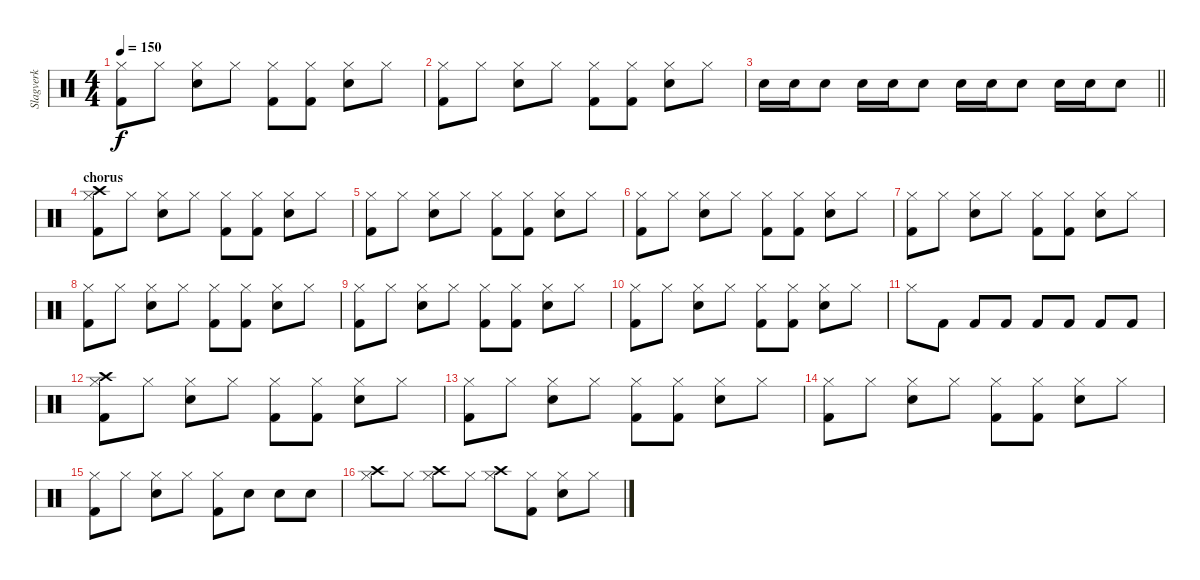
\track ("Slagverk" "Slagverk") {instrument percussion}
\staff {score}
\articulation defaults
\ts (4 4)
\tempo 150
\clef neutral
\ks c
("Hi-Hat (closed)" "Kick (hit) 2").8{dy f} "Hi-Hat (closed)".8 ("Hi-Hat (closed)" "Snare (hit) 2").8 "Hi-Hat (closed)".8 ("Hi-Hat (closed)" "Kick (hit) 2").8 ("Hi-Hat (closed)" "Kick (hit) 2").8 ("Hi-Hat (closed)" "Snare (hit) 2").8 "Hi-Hat (closed)".8 |
("Hi-Hat (closed)" "Kick (hit) 2").8 "Hi-Hat (closed)".8 ("Hi-Hat (closed)" "Snare (hit) 2").8 "Hi-Hat (closed)".8 ("Hi-Hat (closed)" "Kick (hit) 2").8 ("Hi-Hat (closed)" "Kick (hit) 2").8 ("Hi-Hat (closed)" "Snare (hit) 2").8 "Hi-Hat (closed)".8 |
\barLineRight lightlight "Snare (hit) 2".16 "Snare (hit) 2".16 "Snare (hit) 2".8 "Snare (hit) 2".16 "Snare (hit) 2".16 "Snare (hit) 2".8 "Snare (hit) 2".16 "Snare (hit) 2".16 "Snare (hit) 2".8 "Snare (hit) 2".16 "Snare (hit) 2".16 "Snare (hit) 2".8
|
\section ("" "chorus")
("Hi-Hat (closed)" "Kick (hit) 2" "Crash high (hit)").8 "Hi-Hat (closed)".8 ("Hi-Hat (closed)" "Snare (hit) 2").8 "Hi-Hat (closed)".8 ("Hi-Hat (closed)" "Kick (hit) 2").8 ("Hi-Hat (closed)" "Kick (hit) 2").8 ("Hi-Hat (closed)" "Snare (hit) 2").8 "Hi-Hat (closed)".8 |
("Hi-Hat (closed)" "Kick (hit) 2").8 "Hi-Hat (closed)".8 ("Hi-Hat (closed)" "Snare (hit) 2").8 "Hi-Hat (closed)".8 ("Hi-Hat (closed)" "Kick (hit) 2").8 ("Hi-Hat (closed)" "Kick (hit) 2").8 ("Hi-Hat (closed)" "Snare (hit) 2").8 "Hi-Hat (closed)".8 |
("Hi-Hat (closed)" "Kick (hit) 2").8 "Hi-Hat (closed)".8 ("Hi-Hat (closed)" "Snare (hit) 2").8 "Hi-Hat (closed)".8 ("Hi-Hat (closed)" "Kick (hit) 2").8 ("Hi-Hat (closed)" "Kick (hit) 2").8 ("Hi-Hat (closed)" "Snare (hit) 2").8 "Hi-Hat (closed)".8 |
("Hi-Hat (closed)" "Kick (hit) 2").8 "Hi-Hat (closed)".8 ("Hi-Hat (closed)" "Snare (hit) 2").8 "Hi-Hat (closed)".8 ("Hi-Hat (closed)" "Kick (hit) 2").8 ("Hi-Hat (closed)" "Kick (hit) 2").8 ("Hi-Hat (closed)" "Snare (hit) 2").8 "Hi-Hat (closed)".8 |
("Hi-Hat (closed)" "Kick (hit) 2").8 "Hi-Hat (closed)".8 ("Hi-Hat (closed)" "Snare (hit) 2").8 "Hi-Hat (closed)".8 ("Hi-Hat (closed)" "Kick (hit) 2").8 ("Hi-Hat (closed)" "Kick (hit) 2").8 ("Hi-Hat (closed)" "Snare (hit) 2").8 "Hi-Hat (closed)".8 |
("Hi-Hat (closed)" "Kick (hit) 2").8 "Hi-Hat (closed)".8 ("Hi-Hat (closed)" "Snare (hit) 2").8 "Hi-Hat (closed)".8 ("Hi-Hat (closed)" "Kick (hit) 2").8 ("Hi-Hat (closed)" "Kick (hit) 2").8 ("Hi-Hat (closed)" "Snare (hit) 2").8 "Hi-Hat (closed)".8 |
("Hi-Hat (closed)" "Kick (hit) 2").8 "Hi-Hat (closed)".8 ("Hi-Hat (closed)" "Snare (hit) 2").8 "Hi-Hat (closed)".8 ("Hi-Hat (closed)" "Kick (hit) 2").8 ("Hi-Hat (closed)" "Kick (hit) 2").8 ("Hi-Hat (closed)" "Snare (hit) 2").8 "Hi-Hat (closed)".8 |
"Hi-Hat (closed)".8 "Kick (hit) 2".8 "Kick (hit) 2".8 "Kick (hit) 2".8 "Kick (hit) 2".8 "Kick (hit) 2".8 "Kick (hit) 2".8 "Kick (hit) 2".8 |
("Hi-Hat (closed)" "Kick (hit) 2" "Crash high (hit)").8 "Hi-Hat (closed)".8 ("Hi-Hat (closed)" "Snare (hit) 2").8 "Hi-Hat (closed)".8 ("Hi-Hat (closed)" "Kick (hit) 2").8 ("Hi-Hat (closed)" "Kick (hit) 2").8 ("Hi-Hat (closed)" "Snare (hit) 2").8 "Hi-Hat (closed)".8 |
("Hi-Hat (closed)" "Kick (hit) 2").8 "Hi-Hat (closed)".8 ("Hi-Hat (closed)" "Snare (hit) 2").8 "Hi-Hat (closed)".8 ("Hi-Hat (closed)" "Kick (hit) 2").8 ("Hi-Hat (closed)" "Kick (hit) 2").8 ("Hi-Hat (closed)" "Snare (hit) 2").8 "Hi-Hat (closed)".8 |
("Hi-Hat (closed)" "Kick (hit) 2").8 "Hi-Hat (closed)".8 ("Hi-Hat (closed)" "Snare (hit) 2").8 "Hi-Hat (closed)".8 ("Hi-Hat (closed)" "Kick (hit) 2").8 ("Hi-Hat (closed)" "Kick (hit) 2").8 ("Hi-Hat (closed)" "Snare (hit) 2").8 "Hi-Hat (closed)".8 |
("Hi-Hat (closed)" "Kick (hit) 2").8 "Hi-Hat (closed)".8 ("Hi-Hat (closed)" "Snare (hit) 2").8 "Hi-Hat (closed)".8 ("Hi-Hat (closed)" "Kick (hit) 2").8 "Snare (hit) 2".8 "Snare (hit) 2".8 "Snare (hit) 2".8 |
("Hi-Hat (closed)" "Crash high (hit)").8 "Hi-Hat (closed)".8 ("Hi-Hat (closed)" "Crash high (hit)").8 "Hi-Hat (closed)".8 ("Hi-Hat (closed)" "Crash high (hit)").8 ("Hi-Hat (closed)" "Kick (hit) 2").8 ("Hi-Hat (closed)" "Snare (hit) 2").8 "Hi-Hat (closed)".8
